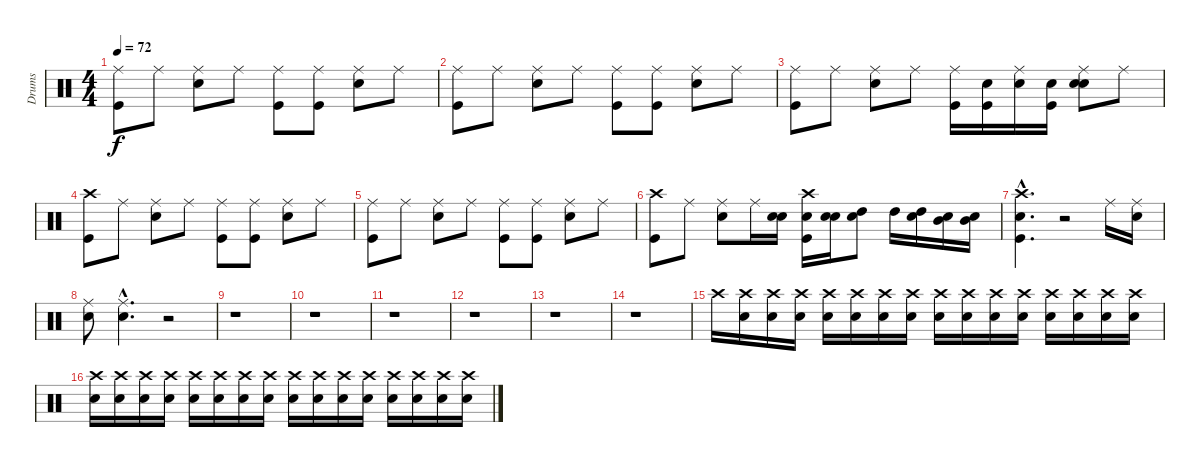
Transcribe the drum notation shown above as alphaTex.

\track ("Drums" "Drums") {instrument percussion}
\staff {score}
\articulation defaults
\ts (4 4)
\tempo 72
\clef neutral
\ks c
("Ride (middle)" "Kick (hit)").8{dy f} "Ride (middle)".8 ("Ride (middle)" "Snare (hit) 2").8 "Ride (middle)".8 ("Ride (middle)" "Kick (hit)").8 ("Ride (middle)" "Kick (hit)").8 ("Ride (middle)" "Snare (hit) 2").8 "Ride (middle)".8 |
("Ride (middle)" "Kick (hit)").8 "Ride (middle)".8 ("Ride (middle)" "Snare (hit) 2").8 "Ride (middle)".8 ("Ride (middle)" "Kick (hit)").8 ("Ride (middle)" "Kick (hit)").8 ("Ride (middle)" "Snare (hit) 2").8 "Ride (middle)".8 |
("Ride (middle)" "Kick (hit)").8 "Ride (middle)".8 ("Ride (middle)" "Snare (hit) 2").8 "Ride (middle)".8 ("Ride (middle)" "Kick (hit)").16 ("Snare (hit)" "Kick (hit)").16 ("Snare (hit)" "Ride (middle)").16 ("Snare (hit)" "Kick (hit)").16 ("Snare (hit)" "Ride (middle)" "Snare (hit) 2").8 "Ride (middle)".8 |
("Crash high (hit)" "Kick (hit)").8 "Ride (middle)".8 ("Ride (middle)" "Snare (hit) 2").8 "Ride (middle)".8 ("Ride (middle)" "Kick (hit)").8 ("Ride (middle)" "Kick (hit)").8 ("Ride (middle)" "Snare (hit) 2").8 "Ride (middle)".8 |
("Ride (middle)" "Kick (hit)").8 "Ride (middle)".8 ("Ride (middle)" "Snare (hit) 2").8 "Ride (middle)".8 ("Ride (middle)" "Kick (hit)").8 ("Ride (middle)" "Kick (hit)").8 ("Ride (middle)" "Snare (hit) 2").8 "Ride (middle)".8 |
("Crash high (hit)" "Kick (hit)").8 "Ride (middle)".8 ("Ride (middle)" "Snare (hit) 2").8 "Ride (middle)".16 ("Snare (hit)" "Snare (hit) 2").16 ("Snare (hit)" "Crash high (hit)" "Kick (hit)").16 ("Snare (hit)" "Snare (hit) 2").16 ("Snare (hit)" "High Tom (hit)").8 "High Tom (hit)".16 ("Snare (hit)" "High Tom (hit)").16 ("Snare (hit)" "Mid Tom (hit)").16 ("Snare (hit)" "Mid Tom (hit)").16 |
("Snare (hit)"{hac} "Crash high (hit)"{hac} "Kick (hit)"{hac}).4{d} r.2 "Ride (middle)".16 ("Snare (hit)" "Ride (middle)").16 |
("Snare (hit)" "Ride (middle)").8 ("Snare (hit)"{hac} "Ride (middle)"{hac}).4{d} r.2 |
r.1 |
r.1 |
r.1 |
r.1 |
r.1 |
r.1 |
"Crash high (hit)".16 ("Snare (hit)" "Crash high (hit)").16 ("Snare (hit)" "Crash high (hit)").16 ("Snare (hit)" "Crash high (hit)").16 ("Snare (hit)" "Crash high (hit)").16 ("Snare (hit)" "Crash high (hit)").16 ("Snare (hit)" "Crash high (hit)").16 ("Snare (hit)" "Crash high (hit)").16 ("Snare (hit)" "Crash high (hit)").16 ("Snare (hit)" "Crash high (hit)").16 ("Snare (hit)" "Crash high (hit)").16 ("Snare (hit)" "Crash high (hit)").16 ("Snare (hit)" "Crash high (hit)").16 ("Snare (hit)" "Crash high (hit)").16 ("Snare (hit)" "Crash high (hit)").16 ("Snare (hit)" "Crash high (hit)").16 |
("Snare (hit)" "Crash high (hit)").16 ("Snare (hit)" "Crash high (hit)").16 ("Snare (hit)" "Crash high (hit)").16 ("Snare (hit)" "Crash high (hit)").16 ("Snare (hit)" "Crash high (hit)").16 ("Snare (hit)" "Crash high (hit)").16 ("Snare (hit)" "Crash high (hit)").16 ("Snare (hit)" "Crash high (hit)").16 ("Snare (hit)" "Crash high (hit)").16 ("Snare (hit)" "Crash high (hit)").16 ("Snare (hit)" "Crash high (hit)").16 ("Snare (hit)" "Crash high (hit)").16 ("Snare (hit)" "Crash high (hit)").16 ("Snare (hit)" "Crash high (hit)").16 ("Snare (hit)" "Crash high (hit)").16 ("Snare (hit)" "Crash high (hit)").16
